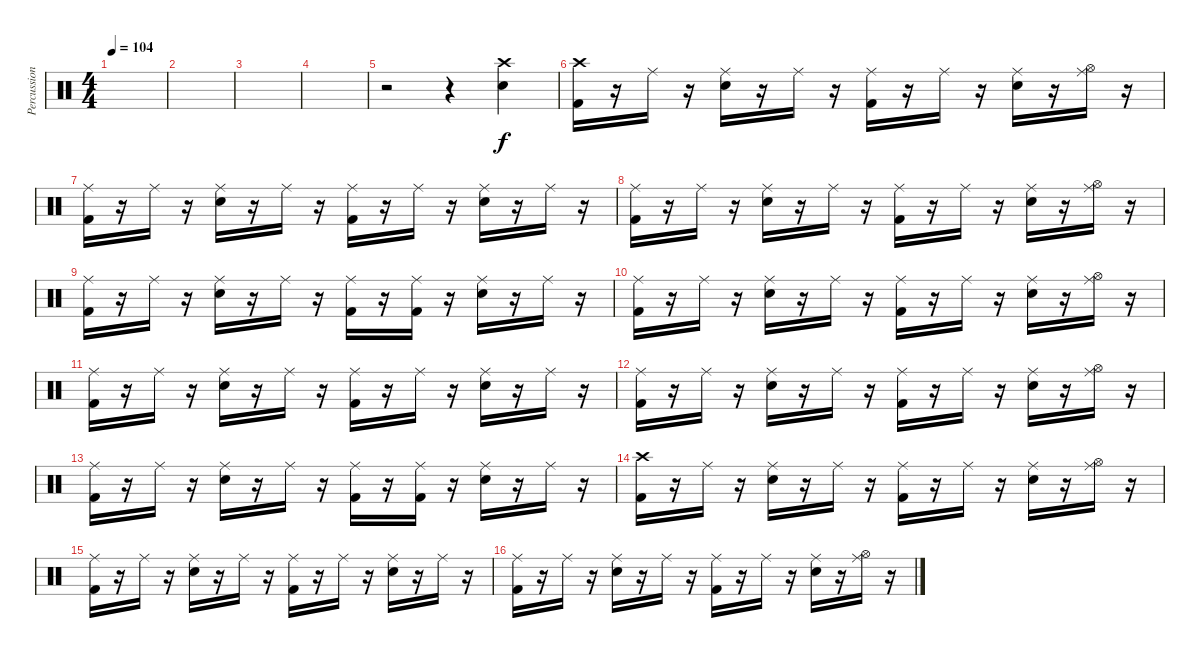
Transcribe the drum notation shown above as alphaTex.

\track ("Percussion" "Percussion") {instrument percussion}
\staff {score}
\articulation defaults
\ts (4 4)
\tempo 104
\clef neutral
\ks c
|
|
|
|
r.2 r.4 ("Crash high (hit)" "Snare (hit) 2").4 |
("Crash high (hit)" "Kick (hit) 2").16 r.16 "Ride (middle)".16 r.16 ("Ride (middle)" "Electric Snare (hit)").16 r.16 "Ride (middle)".16 r.16 ("Ride (middle)" "Kick (hit) 2").16 r.16 "Ride (middle)".16 r.16 ("Ride (middle)" "Electric Snare (hit)").16 r.16 ("Ride (middle)" "Hi-Hat (open)").16 r.16 |
("Ride (middle)" "Kick (hit) 2").16 r.16 "Ride (middle)".16 r.16 ("Ride (middle)" "Electric Snare (hit)").16 r.16 "Ride (middle)".16 r.16 ("Ride (middle)" "Kick (hit) 2").16 r.16 "Ride (middle)".16 r.16 ("Ride (middle)" "Electric Snare (hit)").16 r.16 "Ride (middle)".16 r.16 |
("Ride (middle)" "Kick (hit) 2").16 r.16 "Ride (middle)".16 r.16 ("Ride (middle)" "Electric Snare (hit)").16 r.16 "Ride (middle)".16 r.16 ("Ride (middle)" "Kick (hit) 2").16 r.16 "Ride (middle)".16 r.16 ("Ride (middle)" "Electric Snare (hit)").16 r.16 ("Ride (middle)" "Hi-Hat (open)").16 r.16 |
("Ride (middle)" "Kick (hit) 2").16 r.16 "Ride (middle)".16 r.16 ("Ride (middle)" "Electric Snare (hit)").16 r.16 "Ride (middle)".16 r.16 ("Ride (middle)" "Kick (hit) 2").16 r.16 ("Ride (middle)" "Kick (hit) 2").16 r.16 ("Ride (middle)" "Electric Snare (hit)").16 r.16 "Ride (middle)".16 r.16 |
("Ride (middle)" "Kick (hit) 2").16 r.16 "Ride (middle)".16 r.16 ("Ride (middle)" "Electric Snare (hit)").16 r.16 "Ride (middle)".16 r.16 ("Ride (middle)" "Kick (hit) 2").16 r.16 "Ride (middle)".16 r.16 ("Ride (middle)" "Electric Snare (hit)").16 r.16 ("Ride (middle)" "Hi-Hat (open)").16 r.16 |
("Ride (middle)" "Kick (hit) 2").16 r.16 "Ride (middle)".16 r.16 ("Ride (middle)" "Electric Snare (hit)").16 r.16 "Ride (middle)".16 r.16 ("Ride (middle)" "Kick (hit) 2").16 r.16 "Ride (middle)".16 r.16 ("Ride (middle)" "Electric Snare (hit)").16 r.16 "Ride (middle)".16 r.16 |
("Ride (middle)" "Kick (hit) 2").16 r.16 "Ride (middle)".16 r.16 ("Ride (middle)" "Electric Snare (hit)").16 r.16 "Ride (middle)".16 r.16 ("Ride (middle)" "Kick (hit) 2").16 r.16 "Ride (middle)".16 r.16 ("Ride (middle)" "Electric Snare (hit)").16 r.16 ("Ride (middle)" "Hi-Hat (open)").16 r.16 |
("Ride (middle)" "Kick (hit) 2").16 r.16 "Ride (middle)".16 r.16 ("Ride (middle)" "Electric Snare (hit)").16 r.16 "Ride (middle)".16 r.16 ("Ride (middle)" "Kick (hit) 2").16 r.16 ("Ride (middle)" "Kick (hit) 2").16 r.16 ("Ride (middle)" "Electric Snare (hit)").16 r.16 "Ride (middle)".16 r.16 |
("Crash high (hit)" "Kick (hit) 2").16 r.16 "Ride (middle)".16 r.16 ("Ride (middle)" "Electric Snare (hit)").16 r.16 "Ride (middle)".16 r.16 ("Ride (middle)" "Kick (hit) 2").16 r.16 "Ride (middle)".16 r.16 ("Ride (middle)" "Electric Snare (hit)").16 r.16 ("Ride (middle)" "Hi-Hat (open)").16 r.16 |
("Ride (middle)" "Kick (hit) 2").16 r.16 "Ride (middle)".16 r.16 ("Ride (middle)" "Electric Snare (hit)").16 r.16 "Ride (middle)".16 r.16 ("Ride (middle)" "Kick (hit) 2").16 r.16 "Ride (middle)".16 r.16 ("Ride (middle)" "Electric Snare (hit)").16 r.16 "Ride (middle)".16 r.16 |
("Ride (middle)" "Kick (hit) 2").16 r.16 "Ride (middle)".16 r.16 ("Ride (middle)" "Electric Snare (hit)").16 r.16 "Ride (middle)".16 r.16 ("Ride (middle)" "Kick (hit) 2").16 r.16 "Ride (middle)".16 r.16 ("Ride (middle)" "Electric Snare (hit)").16 r.16 ("Ride (middle)" "Hi-Hat (open)").16 r.16
